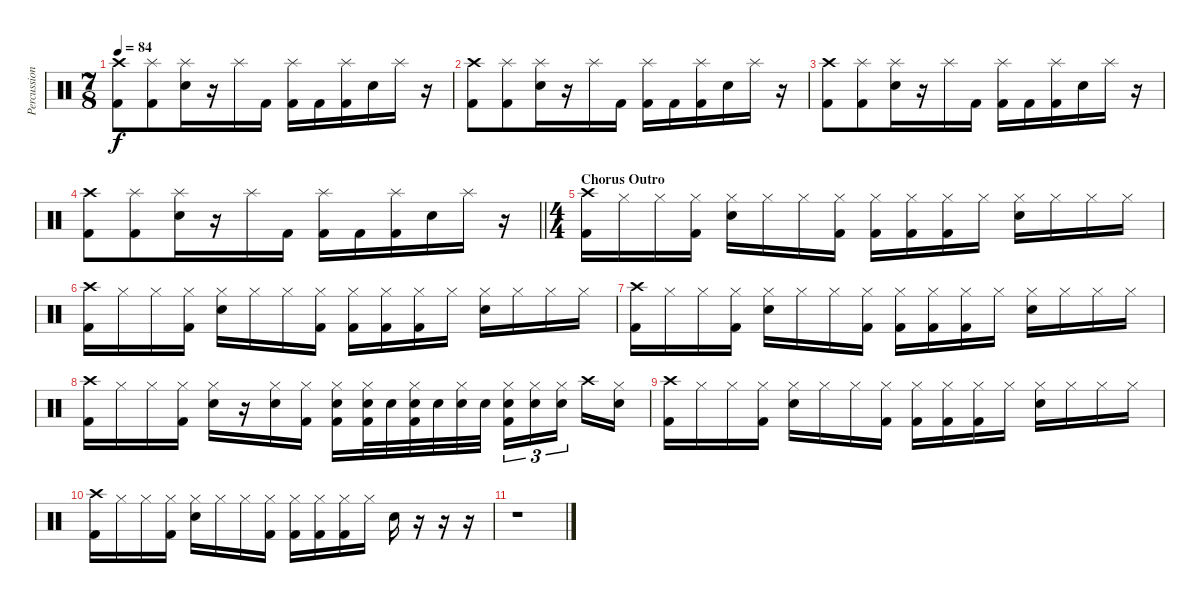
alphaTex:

\track ("Percussions" "Percussion") {instrument percussion}
\staff {score}
\articulation defaults
\ts (7 8)
\tempo 84
\clef neutral
\ks c
("Crash high (hit)" "Kick (hit) 2").8{dy f} ("Splash (hit)" "Kick (hit) 2").8 ("Splash (hit)" "Electric Snare (hit)").16 r.16 "Splash (hit)".16 "Kick (hit) 2".16 ("Splash (hit)" "Kick (hit) 2").16 "Kick (hit) 2".16 ("Splash (hit)" "Kick (hit) 2").16 "Electric Snare (hit)".16 "Splash (hit)".16 r.16 |
("Crash high (hit)" "Kick (hit) 2").8 ("Splash (hit)" "Kick (hit) 2").8 ("Splash (hit)" "Electric Snare (hit)").16 r.16 "Splash (hit)".16 "Kick (hit) 2".16 ("Splash (hit)" "Kick (hit) 2").16 "Kick (hit) 2".16 ("Splash (hit)" "Kick (hit) 2").16 "Electric Snare (hit)".16 "Splash (hit)".16 r.16 |
("Crash high (hit)" "Kick (hit) 2").8 ("Splash (hit)" "Kick (hit) 2").8 ("Splash (hit)" "Electric Snare (hit)").16 r.16 "Splash (hit)".16 "Kick (hit) 2".16 ("Splash (hit)" "Kick (hit) 2").16 "Kick (hit) 2".16 ("Splash (hit)" "Kick (hit) 2").16 "Electric Snare (hit)".16 "Splash (hit)".16 r.16 |
\barLineRight lightlight
("Crash high (hit)" "Kick (hit) 2").8 ("Splash (hit)" "Kick (hit) 2").8 ("Splash (hit)" "Electric Snare (hit)").16 r.16 "Splash (hit)".16 "Kick (hit) 2".16 ("Splash (hit)" "Kick (hit) 2").16 "Kick (hit) 2".16 ("Splash (hit)" "Kick (hit) 2").16 "Electric Snare (hit)".16 "Splash (hit)".16 r.16 |
\ts (4 4)
\section ("" "Chorus Outro")
("Crash high (hit)" "Kick (hit) 2").16 "Hi-Hat (closed)".16 "Hi-Hat (closed)".16 ("Hi-Hat (closed)" "Kick (hit) 2").16 ("Hi-Hat (closed)" "Electric Snare (hit)").16 "Hi-Hat (closed)".16 "Hi-Hat (closed)".16 ("Hi-Hat (closed)" "Kick (hit) 2").16 ("Hi-Hat (closed)" "Kick (hit) 2").16 ("Hi-Hat (closed)" "Kick (hit) 2").16 ("Hi-Hat (closed)" "Kick (hit) 2").16 "Hi-Hat (closed)".16 ("Hi-Hat (closed)" "Electric Snare (hit)").16 "Hi-Hat (closed)".16 "Hi-Hat (closed)".16 "Hi-Hat (closed)".16 |
("Crash high (hit)" "Kick (hit) 2").16 "Hi-Hat (closed)".16 "Hi-Hat (closed)".16 ("Hi-Hat (closed)" "Kick (hit) 2").16 ("Hi-Hat (closed)" "Electric Snare (hit)").16 "Hi-Hat (closed)".16 "Hi-Hat (closed)".16 ("Hi-Hat (closed)" "Kick (hit) 2").16 ("Hi-Hat (closed)" "Kick (hit) 2").16 ("Hi-Hat (closed)" "Kick (hit) 2").16 ("Hi-Hat (closed)" "Kick (hit) 2").16 "Hi-Hat (closed)".16 ("Hi-Hat (closed)" "Electric Snare (hit)").16 "Hi-Hat (closed)".16 "Hi-Hat (closed)".16 "Hi-Hat (closed)".16 |
("Crash high (hit)" "Kick (hit) 2").16 "Hi-Hat (closed)".16 "Hi-Hat (closed)".16 ("Hi-Hat (closed)" "Kick (hit) 2").16 ("Hi-Hat (closed)" "Electric Snare (hit)").16 "Hi-Hat (closed)".16 "Hi-Hat (closed)".16 ("Hi-Hat (closed)" "Kick (hit) 2").16 ("Hi-Hat (closed)" "Kick (hit) 2").16 ("Hi-Hat (closed)" "Kick (hit) 2").16 ("Hi-Hat (closed)" "Kick (hit) 2").16 "Hi-Hat (closed)".16 ("Hi-Hat (closed)" "Electric Snare (hit)").16 "Hi-Hat (closed)".16 "Hi-Hat (closed)".16 "Hi-Hat (closed)".16 |
("Crash high (hit)" "Kick (hit) 2").16 "Hi-Hat (closed)".16 "Hi-Hat (closed)".16 ("Hi-Hat (closed)" "Kick (hit) 2").16 ("Hi-Hat (closed)" "Electric Snare (hit)").16 r.16 ("Hi-Hat (closed)" "Electric Snare (hit)").16 ("Hi-Hat (closed)" "Kick (hit) 2").16 ("Hi-Hat (closed)" "Electric Snare (hit)" "Kick (hit) 2").16 ("Hi-Hat (closed)" "Electric Snare (hit)" "Kick (hit) 2").32 "Electric Snare (hit)".32 ("Hi-Hat (closed)" "Electric Snare (hit)" "Kick (hit) 2").32 "Electric Snare (hit)".32 ("Hi-Hat (closed)" "Electric Snare (hit)").32 "Electric Snare (hit)".32 ("Hi-Hat (closed)" "Electric Snare (hit)" "Kick (hit) 2").16{tu (3 2)} ("Hi-Hat (closed)" "Electric Snare (hit)").16{tu (3 2)} ("Hi-Hat (closed)" "Electric Snare (hit)").16{tu (3 2) beam splitsecondary} "Crash high (hit)".16 ("Hi-Hat (closed)" "Electric Snare (hit)").16 |
("Crash high (hit)" "Kick (hit) 2").16 "Hi-Hat (closed)".16 "Hi-Hat (closed)".16 ("Hi-Hat (closed)" "Kick (hit) 2").16 ("Hi-Hat (closed)" "Electric Snare (hit)").16 "Hi-Hat (closed)".16 "Hi-Hat (closed)".16 ("Hi-Hat (closed)" "Kick (hit) 2").16 ("Hi-Hat (closed)" "Kick (hit) 2").16 ("Hi-Hat (closed)" "Kick (hit) 2").16 ("Hi-Hat (closed)" "Kick (hit) 2").16 "Hi-Hat (closed)".16 ("Hi-Hat (closed)" "Electric Snare (hit)").16 "Hi-Hat (closed)".16 "Hi-Hat (closed)".16 "Hi-Hat (closed)".16 |
("Crash high (hit)" "Kick (hit) 2").16 "Hi-Hat (closed)".16 "Hi-Hat (closed)".16 ("Hi-Hat (closed)" "Kick (hit) 2").16 ("Hi-Hat (closed)" "Electric Snare (hit)").16 "Hi-Hat (closed)".16 "Hi-Hat (closed)".16 ("Hi-Hat (closed)" "Kick (hit) 2").16 ("Hi-Hat (closed)" "Kick (hit) 2").16 ("Hi-Hat (closed)" "Kick (hit) 2").16 ("Hi-Hat (closed)" "Kick (hit) 2").16 "Hi-Hat (closed)".16 "Electric Snare (hit)".16 r.16 r.16 r.16 |
r.1
